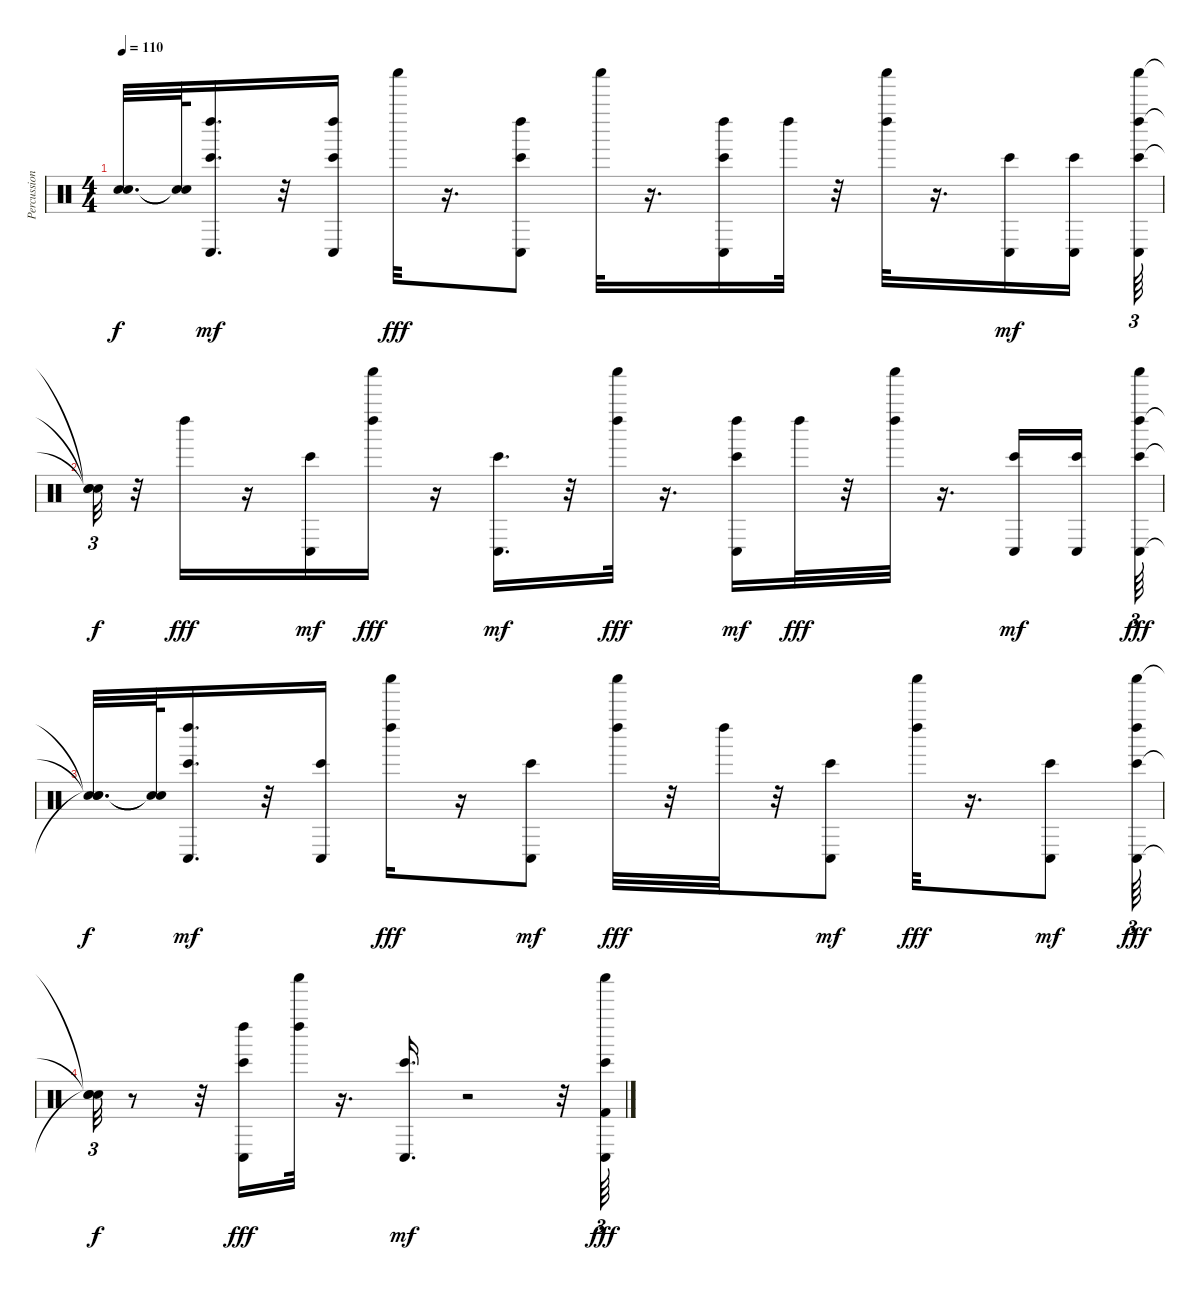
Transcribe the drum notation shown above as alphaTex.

\track ("Percussion" "Percussion") {instrument percussion}
\staff {score}
\articulation defaults
\ts (4 4)
\tempo 110
\clef neutral
\ks c
("Snare (hit)"{t} "Snare (hit)"{t}).32{d dy f} ("Snare (hit)"{t} "Snare (hit)"{t}).64 ("Bongo High (hit)" "Left Maraca (hit)" "Conga low (hit)").16{d dy mf} r.32 ("Left Maraca (hit)" "Conga low (hit)" "Bongo High (hit)").16 "Shaker (hit)".32{dy fff} r.16{d} ("Bongo High (hit)" "Conga low (hit)" "Left Maraca (hit)").8 "Shaker (hit)".32 r.16{d} ("Conga low (hit)" "Bongo High (hit)" "Left Maraca (hit)").16 "Left Maraca (hit)".32 r.32 ("Left Maraca (hit)" "Shaker (hit)").32 r.16{d} ("Bongo High (hit)" "Conga low (hit)").16{dy mf} ("Bongo High (hit)" "Conga low (hit)").16 ("Bongo High (hit)" "Shaker (hit)" "Left Maraca (hit)" "Conga low (hit)").64{tu (3 2)} |
("Snare (hit)"{t} "Snare (hit)"{t} "Snare (hit)"{t}).32{tu (3 2) dy f} r.32 "Left Maraca (hit)".16{dy fff} r.16 ("Conga low (hit)" "Bongo High (hit)").16{dy mf} ("Shaker (hit)" "Left Maraca (hit)").16{dy fff} r.16 ("Conga low (hit)" "Bongo High (hit)").16{d dy mf} r.32 ("Shaker (hit)" "Left Maraca (hit)").32{dy fff} r.16{d} ("Left Maraca (hit)" "Conga low (hit)" "Bongo High (hit)").16{dy mf} "Left Maraca (hit)".32{dy fff} r.32 ("Left Maraca (hit)" "Shaker (hit)").32 r.16{d} ("Conga low (hit)" "Bongo High (hit)").16{dy mf} ("Bongo High (hit)" "Conga low (hit)").16{beam splitsecondary} ("Conga low (hit)" "Bongo High (hit)" "Left Maraca (hit)" "Shaker (hit)").64{tu (3 2) dy fff} |
("Snare (hit)"{t} "Snare (hit)"{t} "Snare (hit)"{t}).32{d dy f} ("Snare (hit)"{t} "Snare (hit)"{t}).64 ("Bongo High (hit)" "Left Maraca (hit)" "Conga low (hit)").16{d dy mf} r.32 ("Conga low (hit)" "Bongo High (hit)").16 ("Shaker (hit)" "Left Maraca (hit)").16{dy fff} r.16 ("Bongo High (hit)" "Conga low (hit)").8{dy mf} ("Shaker (hit)" "Left Maraca (hit)").32{dy fff} r.32 "Left Maraca (hit)".32 r.32 ("Conga low (hit)" "Bongo High (hit)").8{dy mf} ("Shaker (hit)" "Left Maraca (hit)").32{dy fff} r.16{d} ("Conga low (hit)" "Bongo High (hit)").8{dy mf} ("Bongo High (hit)" "Conga low (hit)" "Shaker (hit)" "Left Maraca (hit)").64{tu (3 2) dy fff} |
("Snare (hit)"{t} "Snare (hit)"{t} "Snare (hit)"{t}).32{tu (3 2) dy f} r.8 r.32 ("Conga low (hit)" "Bongo High (hit)" "Left Maraca (hit)").16{dy fff} ("Left Maraca (hit)" "Shaker (hit)").32 r.16{d} ("Conga low (hit)" "Bongo High (hit)").16{d dy mf} r.2 r.32 ("Bongo High (hit)" "Conga low (hit)" "Kick (hit) 2" "Shaker (hit)").64{tu (3 2) dy fff}
